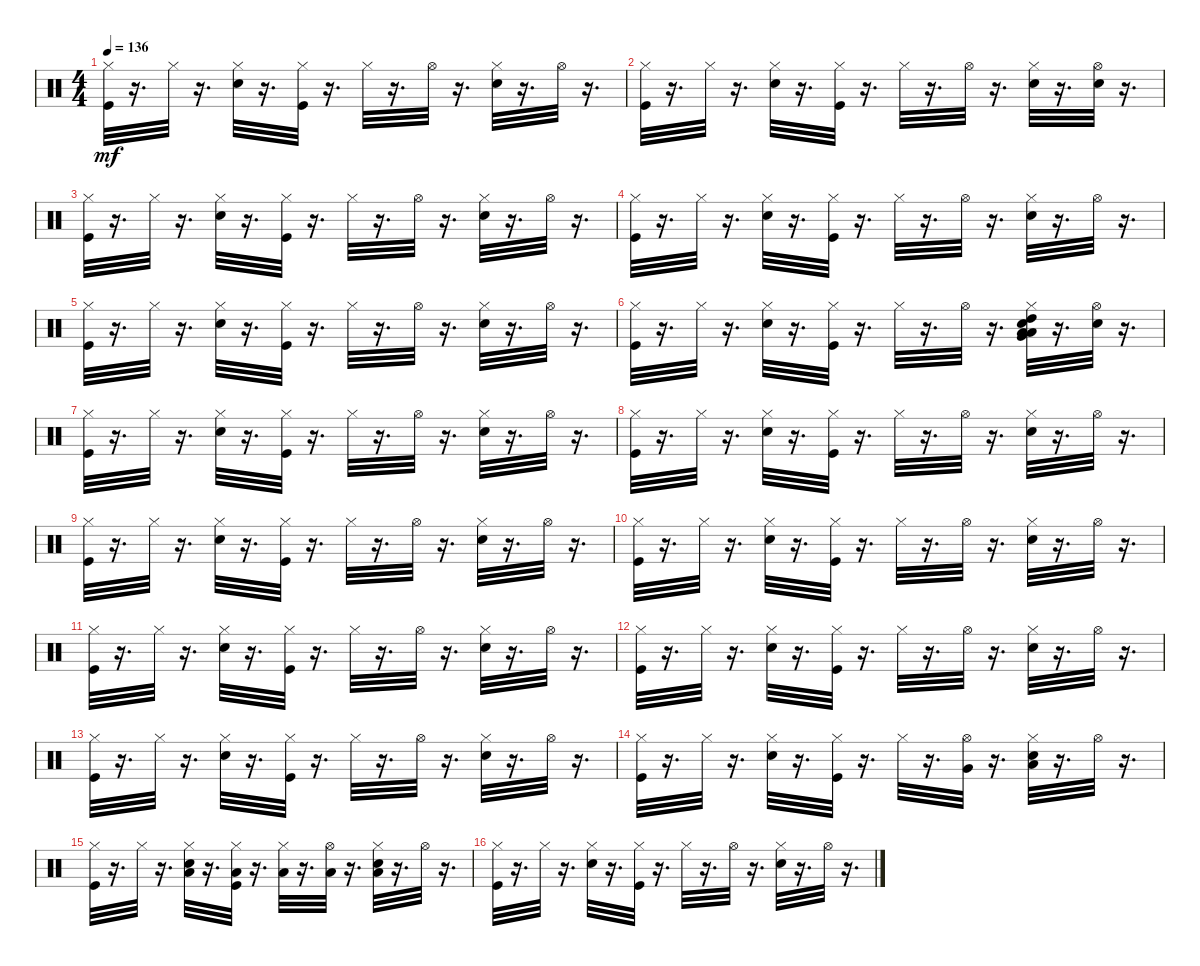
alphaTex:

\track "" {instrument percussion}
\staff {score}
\articulation defaults
\ts (4 4)
\tempo 136
\clef neutral
\ks c
("Kick (hit)" "Hi-Hat (closed)").32{dy mf} r.16{d} "Hi-Hat (closed)".32 r.16{d} ("Snare (hit) 2" "Hi-Hat (closed)").32 r.16{d} ("Kick (hit)" "Hi-Hat (closed)").32 r.16{d} "Hi-Hat (closed)".32 r.16{d} "Hi-Hat (open)".32 r.16{d} ("Snare (hit) 2" "Hi-Hat (closed)").32 r.16{d} "Hi-Hat (open)".32 r.16{d} |
("Kick (hit)" "Hi-Hat (closed)").32 r.16{d} "Hi-Hat (closed)".32 r.16{d} ("Snare (hit) 2" "Hi-Hat (closed)").32 r.16{d} ("Kick (hit)" "Hi-Hat (closed)").32 r.16{d} "Hi-Hat (closed)".32 r.16{d} "Hi-Hat (open)".32 r.16{d} ("Snare (hit) 2" "Hi-Hat (closed)").32 r.16{d} ("Snare (hit) 2" "Hi-Hat (open)").32 r.16{d} |
("Kick (hit)" "Hi-Hat (closed)").32 r.16{d} "Hi-Hat (closed)".32 r.16{d} ("Snare (hit) 2" "Hi-Hat (closed)").32 r.16{d} ("Kick (hit)" "Hi-Hat (closed)").32 r.16{d} "Hi-Hat (closed)".32 r.16{d} "Hi-Hat (open)".32 r.16{d} ("Snare (hit) 2" "Hi-Hat (closed)").32 r.16{d} "Hi-Hat (open)".32 r.16{d} |
("Kick (hit)" "Hi-Hat (closed)").32 r.16{d} "Hi-Hat (closed)".32 r.16{d} ("Snare (hit) 2" "Hi-Hat (closed)").32 r.16{d} ("Kick (hit)" "Hi-Hat (closed)").32 r.16{d} "Hi-Hat (closed)".32 r.16{d} "Hi-Hat (open)".32 r.16{d} ("Snare (hit) 2" "Hi-Hat (closed)").32 r.16{d} "Hi-Hat (open)".32 r.16{d} |
("Kick (hit)" "Hi-Hat (closed)").32 r.16{d} "Hi-Hat (closed)".32 r.16{d} ("Snare (hit) 2" "Hi-Hat (closed)").32 r.16{d} ("Kick (hit)" "Hi-Hat (closed)").32 r.16{d} "Hi-Hat (closed)".32 r.16{d} "Hi-Hat (open)".32 r.16{d} ("Snare (hit) 2" "Hi-Hat (closed)").32 r.16{d} "Hi-Hat (open)".32 r.16{d} |
("Kick (hit)" "Hi-Hat (closed)").32 r.16{d} "Hi-Hat (closed)".32 r.16{d} ("Snare (hit) 2" "Hi-Hat (closed)").32 r.16{d} ("Kick (hit)" "Hi-Hat (closed)").32 r.16{d} "Hi-Hat (closed)".32 r.16{d} "Hi-Hat (open)".32 r.16{d} ("High Tom (hit)" "Low Tom (hit)" "Very Low Tom (hit)" "Low Floor Tom (hit)" "Snare (hit) 2" "Hi-Hat (closed)").32 r.16{d} ("Snare (hit) 2" "Hi-Hat (open)").32 r.16{d} |
("Kick (hit)" "Hi-Hat (closed)").32 r.16{d} "Hi-Hat (closed)".32 r.16{d} ("Snare (hit) 2" "Hi-Hat (closed)").32 r.16{d} ("Kick (hit)" "Hi-Hat (closed)").32 r.16{d} "Hi-Hat (closed)".32 r.16{d} "Hi-Hat (open)".32 r.16{d} ("Snare (hit) 2" "Hi-Hat (closed)").32 r.16{d} "Hi-Hat (open)".32 r.16{d} |
("Kick (hit)" "Hi-Hat (closed)").32 r.16{d} "Hi-Hat (closed)".32 r.16{d} ("Snare (hit) 2" "Hi-Hat (closed)").32 r.16{d} ("Kick (hit)" "Hi-Hat (closed)").32 r.16{d} "Hi-Hat (closed)".32 r.16{d} "Hi-Hat (open)".32 r.16{d} ("Snare (hit) 2" "Hi-Hat (closed)").32 r.16{d} "Hi-Hat (open)".32 r.16{d} |
("Kick (hit)" "Hi-Hat (closed)").32 r.16{d} "Hi-Hat (closed)".32 r.16{d} ("Snare (hit) 2" "Hi-Hat (closed)").32 r.16{d} ("Kick (hit)" "Hi-Hat (closed)").32 r.16{d} "Hi-Hat (closed)".32 r.16{d} "Hi-Hat (open)".32 r.16{d} ("Snare (hit) 2" "Hi-Hat (closed)").32 r.16{d} "Hi-Hat (open)".32 r.16{d} |
("Kick (hit)" "Hi-Hat (closed)").32 r.16{d} "Hi-Hat (closed)".32 r.16{d} ("Snare (hit) 2" "Hi-Hat (closed)").32 r.16{d} ("Kick (hit)" "Hi-Hat (closed)").32 r.16{d} "Hi-Hat (closed)".32 r.16{d} "Hi-Hat (open)".32 r.16{d} ("Snare (hit) 2" "Hi-Hat (closed)").32 r.16{d} "Hi-Hat (open)".32 r.16{d} |
("Kick (hit)" "Hi-Hat (closed)").32 r.16{d} "Hi-Hat (closed)".32 r.16{d} ("Snare (hit) 2" "Hi-Hat (closed)").32 r.16{d} ("Kick (hit)" "Hi-Hat (closed)").32 r.16{d} "Hi-Hat (closed)".32 r.16{d} "Hi-Hat (open)".32 r.16{d} ("Snare (hit) 2" "Hi-Hat (closed)").32 r.16{d} "Hi-Hat (open)".32 r.16{d} |
("Kick (hit)" "Hi-Hat (closed)").32 r.16{d} "Hi-Hat (closed)".32 r.16{d} ("Snare (hit) 2" "Hi-Hat (closed)").32 r.16{d} ("Kick (hit)" "Hi-Hat (closed)").32 r.16{d} "Hi-Hat (closed)".32 r.16{d} "Hi-Hat (open)".32 r.16{d} ("Snare (hit) 2" "Hi-Hat (closed)").32 r.16{d} "Hi-Hat (open)".32 r.16{d} |
("Kick (hit)" "Hi-Hat (closed)").32 r.16{d} "Hi-Hat (closed)".32 r.16{d} ("Snare (hit) 2" "Hi-Hat (closed)").32 r.16{d} ("Kick (hit)" "Hi-Hat (closed)").32 r.16{d} "Hi-Hat (closed)".32 r.16{d} "Hi-Hat (open)".32 r.16{d} ("Snare (hit) 2" "Hi-Hat (closed)").32 r.16{d} "Hi-Hat (open)".32 r.16{d} |
("Kick (hit)" "Hi-Hat (closed)").32 r.16{d} "Hi-Hat (closed)".32 r.16{d} ("Snare (hit) 2" "Hi-Hat (closed)").32 r.16{d} ("Kick (hit)" "Hi-Hat (closed)").32 r.16{d} "Hi-Hat (closed)".32 r.16{d} ("Very Low Tom (hit)" "Hi-Hat (open)").32 r.16{d} ("Low Floor Tom (hit)" "Snare (hit) 2" "Hi-Hat (closed)").32 r.16{d} "Hi-Hat (open)".32 r.16{d} |
("Kick (hit)" "Hi-Hat (closed)").32 r.16{d} "Hi-Hat (closed)".32 r.16{d} ("Low Floor Tom (hit)" "Snare (hit) 2" "Hi-Hat (closed)").32 r.16{d} ("Low Floor Tom (hit)" "Kick (hit)" "Hi-Hat (closed)").32 r.16{d} ("Low Floor Tom (hit)" "Hi-Hat (closed)").32 r.16{d} ("Low Floor Tom (hit)" "Hi-Hat (open)").32 r.16{d} ("Low Floor Tom (hit)" "Snare (hit) 2" "Hi-Hat (closed)").32 r.16{d} "Hi-Hat (open)".32 r.16{d} |
("Kick (hit)" "Hi-Hat (closed)").32 r.16{d} "Hi-Hat (closed)".32 r.16{d} ("Snare (hit) 2" "Hi-Hat (closed)").32 r.16{d} ("Kick (hit)" "Hi-Hat (closed)").32 r.16{d} "Hi-Hat (closed)".32 r.16{d} "Hi-Hat (open)".32 r.16{d} ("Snare (hit) 2" "Hi-Hat (closed)").32 r.16{d} "Hi-Hat (open)".32 r.16{d}
